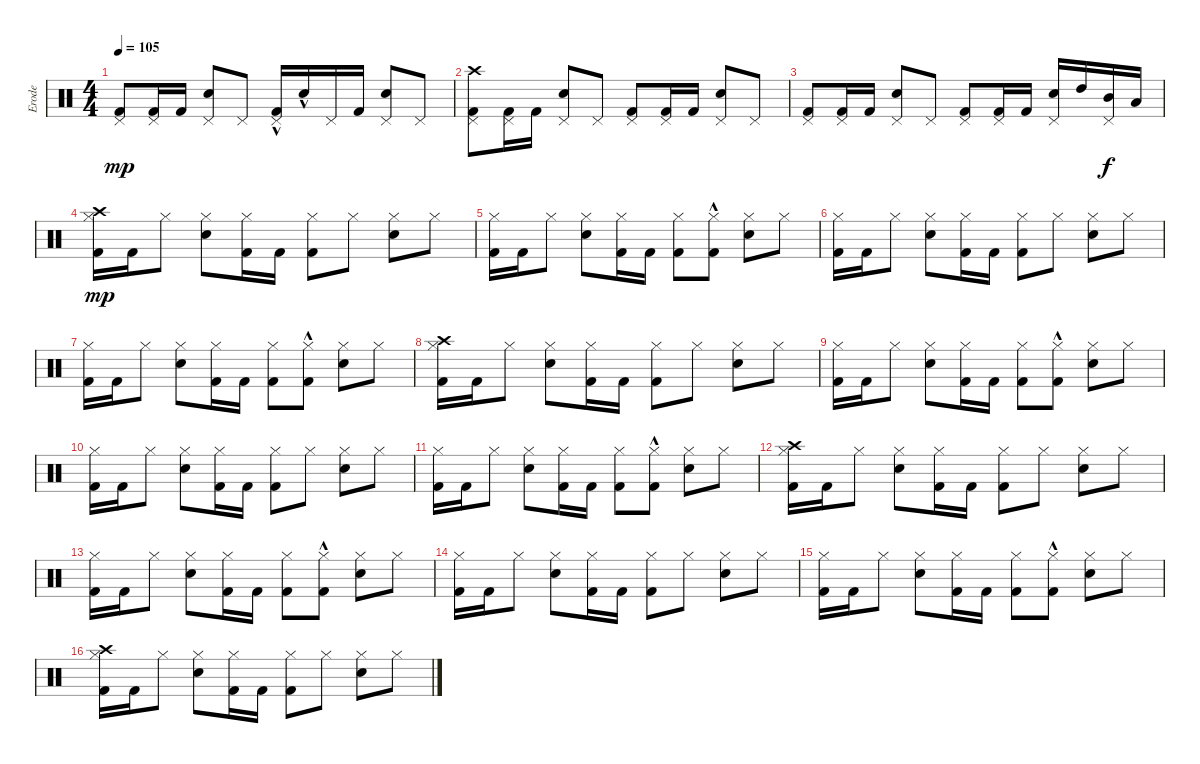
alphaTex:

\track ("Erode" "Erode") {instrument percussion}
\staff {score}
\articulation defaults
\ts (4 4)
\tempo 105
\clef neutral
\ks c
("Kick (hit) 2" "Pedal Hi-Hat (hit)").8{dy mp} ("Kick (hit) 2" "Pedal Hi-Hat (hit)").16 "Kick (hit) 2".16 ("Snare (hit) 2" "Pedal Hi-Hat (hit)").8 "Pedal Hi-Hat (hit)".8 ("Kick (hit) 2"{hac} "Pedal Hi-Hat (hit)").16 "Snare (hit) 2"{hac}.16 "Pedal Hi-Hat (hit)".16 "Kick (hit) 2".16 ("Snare (hit) 2" "Pedal Hi-Hat (hit)").8 "Pedal Hi-Hat (hit)".8 |
("Kick (hit) 2" "Pedal Hi-Hat (hit)" "Crash high (hit)").8 ("Kick (hit) 2" "Pedal Hi-Hat (hit)").16 "Kick (hit) 2".16 ("Snare (hit) 2" "Pedal Hi-Hat (hit)").8 "Pedal Hi-Hat (hit)".8 ("Kick (hit) 2" "Pedal Hi-Hat (hit)").8 ("Kick (hit) 2" "Pedal Hi-Hat (hit)").16 "Kick (hit) 2".16 ("Snare (hit) 2" "Pedal Hi-Hat (hit)").8 "Pedal Hi-Hat (hit)".8 |
("Kick (hit) 2" "Pedal Hi-Hat (hit)").8 ("Kick (hit) 2" "Pedal Hi-Hat (hit)").16 "Kick (hit) 2".16 ("Snare (hit) 2" "Pedal Hi-Hat (hit)").8 "Pedal Hi-Hat (hit)".8 ("Kick (hit) 2" "Pedal Hi-Hat (hit)").8 ("Kick (hit) 2" "Pedal Hi-Hat (hit)").16 "Kick (hit) 2".16 ("Snare (hit) 2" "Pedal Hi-Hat (hit)").16 "High Tom (hit)".16 ("Mid Tom (hit)" "Pedal Hi-Hat (hit)").16{dy f} "Low Tom (hit)".16 |
("Kick (hit) 2" "Hi-Hat (closed)" "Crash high (hit)").16{dy mp} "Kick (hit) 2".16 "Hi-Hat (closed)".8 ("Electric Snare (hit)" "Hi-Hat (closed)").8 ("Kick (hit) 2" "Hi-Hat (closed)").16 "Kick (hit) 2".16 ("Kick (hit) 2" "Hi-Hat (closed)").8 "Hi-Hat (closed)".8 ("Electric Snare (hit)" "Hi-Hat (closed)").8 "Hi-Hat (closed)".8 |
("Kick (hit) 2" "Hi-Hat (closed)").16 "Kick (hit) 2".16 "Hi-Hat (closed)".8 ("Electric Snare (hit)" "Hi-Hat (closed)").8 ("Kick (hit) 2" "Hi-Hat (closed)").16 "Kick (hit) 2".16 ("Kick (hit) 2" "Hi-Hat (closed)").8 ("Kick (hit) 2"{hac} "Hi-Hat (closed)").8 ("Electric Snare (hit)" "Hi-Hat (closed)").8 "Hi-Hat (closed)".8 |
("Kick (hit) 2" "Hi-Hat (closed)").16 "Kick (hit) 2".16 "Hi-Hat (closed)".8 ("Electric Snare (hit)" "Hi-Hat (closed)").8 ("Kick (hit) 2" "Hi-Hat (closed)").16 "Kick (hit) 2".16 ("Kick (hit) 2" "Hi-Hat (closed)").8 "Hi-Hat (closed)".8 ("Electric Snare (hit)" "Hi-Hat (closed)").8 "Hi-Hat (closed)".8 |
("Kick (hit) 2" "Hi-Hat (closed)").16 "Kick (hit) 2".16 "Hi-Hat (closed)".8 ("Electric Snare (hit)" "Hi-Hat (closed)").8 ("Kick (hit) 2" "Hi-Hat (closed)").16 "Kick (hit) 2".16 ("Kick (hit) 2" "Hi-Hat (closed)").8 ("Kick (hit) 2"{hac} "Hi-Hat (closed)").8 ("Electric Snare (hit)" "Hi-Hat (closed)").8 "Hi-Hat (closed)".8 |
("Kick (hit) 2" "Hi-Hat (closed)" "Crash high (hit)").16 "Kick (hit) 2".16 "Hi-Hat (closed)".8 ("Electric Snare (hit)" "Hi-Hat (closed)").8 ("Kick (hit) 2" "Hi-Hat (closed)").16 "Kick (hit) 2".16 ("Kick (hit) 2" "Hi-Hat (closed)").8 "Hi-Hat (closed)".8 ("Electric Snare (hit)" "Hi-Hat (closed)").8 "Hi-Hat (closed)".8 |
("Kick (hit) 2" "Hi-Hat (closed)").16 "Kick (hit) 2".16 "Hi-Hat (closed)".8 ("Electric Snare (hit)" "Hi-Hat (closed)").8 ("Kick (hit) 2" "Hi-Hat (closed)").16 "Kick (hit) 2".16 ("Kick (hit) 2" "Hi-Hat (closed)").8 ("Kick (hit) 2"{hac} "Hi-Hat (closed)").8 ("Electric Snare (hit)" "Hi-Hat (closed)").8 "Hi-Hat (closed)".8 |
("Kick (hit) 2" "Hi-Hat (closed)").16 "Kick (hit) 2".16 "Hi-Hat (closed)".8 ("Electric Snare (hit)" "Hi-Hat (closed)").8 ("Kick (hit) 2" "Hi-Hat (closed)").16 "Kick (hit) 2".16 ("Kick (hit) 2" "Hi-Hat (closed)").8 "Hi-Hat (closed)".8 ("Electric Snare (hit)" "Hi-Hat (closed)").8 "Hi-Hat (closed)".8 |
("Kick (hit) 2" "Hi-Hat (closed)").16 "Kick (hit) 2".16 "Hi-Hat (closed)".8 ("Electric Snare (hit)" "Hi-Hat (closed)").8 ("Kick (hit) 2" "Hi-Hat (closed)").16 "Kick (hit) 2".16 ("Kick (hit) 2" "Hi-Hat (closed)").8 ("Kick (hit) 2"{hac} "Hi-Hat (closed)").8 ("Electric Snare (hit)" "Hi-Hat (closed)").8 "Hi-Hat (closed)".8 |
("Kick (hit) 2" "Hi-Hat (closed)" "Crash high (hit)").16 "Kick (hit) 2".16 "Hi-Hat (closed)".8 ("Electric Snare (hit)" "Hi-Hat (closed)").8 ("Kick (hit) 2" "Hi-Hat (closed)").16 "Kick (hit) 2".16 ("Kick (hit) 2" "Hi-Hat (closed)").8 "Hi-Hat (closed)".8 ("Electric Snare (hit)" "Hi-Hat (closed)").8 "Hi-Hat (closed)".8 |
("Kick (hit) 2" "Hi-Hat (closed)").16 "Kick (hit) 2".16 "Hi-Hat (closed)".8 ("Electric Snare (hit)" "Hi-Hat (closed)").8 ("Kick (hit) 2" "Hi-Hat (closed)").16 "Kick (hit) 2".16 ("Kick (hit) 2" "Hi-Hat (closed)").8 ("Kick (hit) 2"{hac} "Hi-Hat (closed)").8 ("Electric Snare (hit)" "Hi-Hat (closed)").8 "Hi-Hat (closed)".8 |
("Kick (hit) 2" "Hi-Hat (closed)").16 "Kick (hit) 2".16 "Hi-Hat (closed)".8 ("Electric Snare (hit)" "Hi-Hat (closed)").8 ("Kick (hit) 2" "Hi-Hat (closed)").16 "Kick (hit) 2".16 ("Kick (hit) 2" "Hi-Hat (closed)").8 "Hi-Hat (closed)".8 ("Electric Snare (hit)" "Hi-Hat (closed)").8 "Hi-Hat (closed)".8 |
("Kick (hit) 2" "Hi-Hat (closed)").16 "Kick (hit) 2".16 "Hi-Hat (closed)".8 ("Electric Snare (hit)" "Hi-Hat (closed)").8 ("Kick (hit) 2" "Hi-Hat (closed)").16 "Kick (hit) 2".16 ("Kick (hit) 2" "Hi-Hat (closed)").8 ("Kick (hit) 2"{hac} "Hi-Hat (closed)").8 ("Electric Snare (hit)" "Hi-Hat (closed)").8 "Hi-Hat (closed)".8 |
("Kick (hit) 2" "Hi-Hat (closed)" "Crash high (hit)").16 "Kick (hit) 2".16 "Hi-Hat (closed)".8 ("Electric Snare (hit)" "Hi-Hat (closed)").8 ("Kick (hit) 2" "Hi-Hat (closed)").16 "Kick (hit) 2".16 ("Kick (hit) 2" "Hi-Hat (closed)").8 "Hi-Hat (closed)".8 ("Electric Snare (hit)" "Hi-Hat (closed)").8 "Hi-Hat (closed)".8
